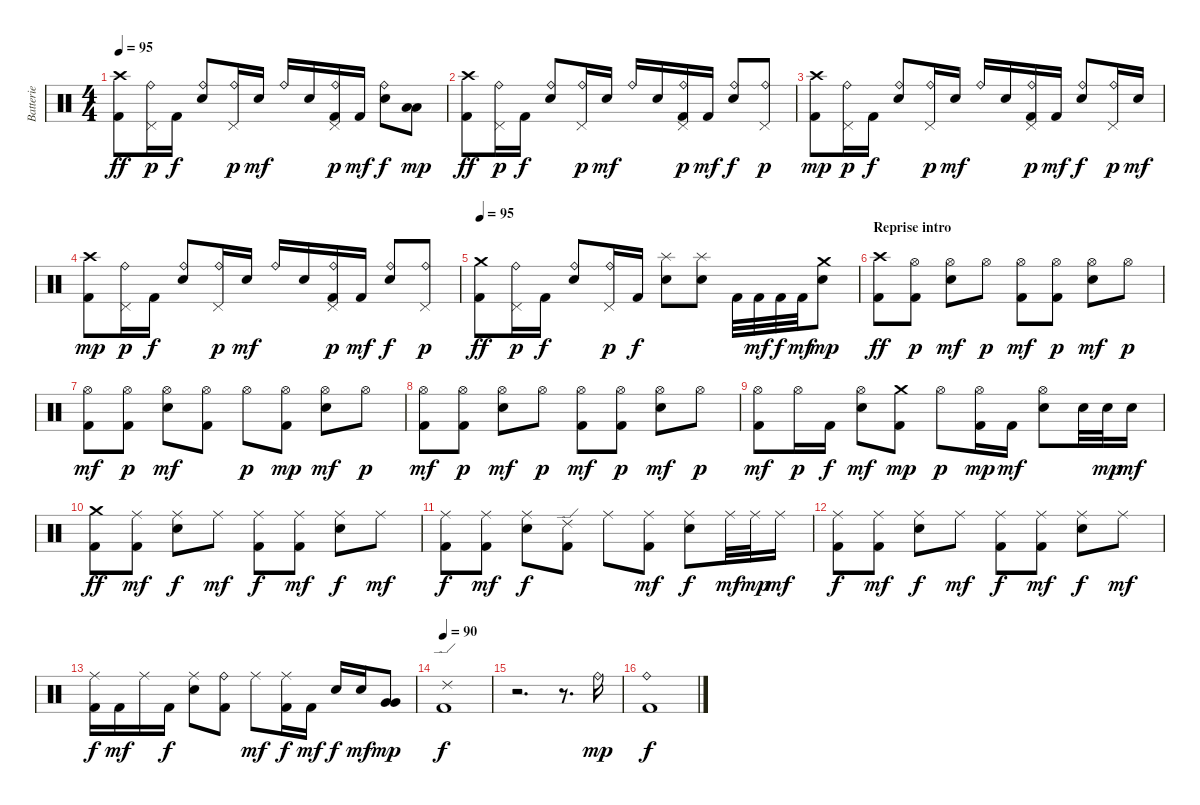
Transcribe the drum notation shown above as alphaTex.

\track ("Batterie" "Batterie") {instrument percussion}
\staff {score}
\articulation defaults
\ts (4 4)
\tempo 95
\clef neutral
\ks c
("Crash high (hit)" "Kick (hit) 2").8{dy ff} ("Ride (bell)" "Pedal Hi-Hat (hit)").16{dy p} "Kick (hit) 2".16{dy f} ("Ride (bell)" "Electric Snare (hit)").8 ("Ride (bell)" "Pedal Hi-Hat (hit)").16{dy p} "Electric Snare (hit)".16{dy mf} "Ride (bell)".16 "Electric Snare (hit)".16 ("Ride (bell)" "Pedal Hi-Hat (hit)" "Kick (hit) 2").16{dy p} "Kick (hit) 2".16{dy mf} ("Ride (bell)" "Electric Snare (hit)").8{dy f} ("Low Tom (hit)" "Low Tom (hit)").8{bd 60 dy mp} |
("Crash high (hit)" "Kick (hit) 2").8{dy ff} ("Ride (bell)" "Pedal Hi-Hat (hit)").16{dy p} "Kick (hit) 2".16{dy f} ("Ride (bell)" "Electric Snare (hit)").8 ("Ride (bell)" "Pedal Hi-Hat (hit)").16{dy p} "Electric Snare (hit)".16{dy mf} "Ride (bell)".16 "Electric Snare (hit)".16 ("Ride (bell)" "Pedal Hi-Hat (hit)" "Kick (hit) 2").16{dy p} "Kick (hit) 2".16{dy mf} ("Ride (bell)" "Electric Snare (hit)").8{dy f} ("Ride (bell)" "Pedal Hi-Hat (hit)").8{dy p} |
("Crash high (hit)" "Kick (hit) 2").8{dy mp} ("Ride (bell)" "Pedal Hi-Hat (hit)").16{dy p} "Kick (hit) 2".16{dy f} ("Ride (bell)" "Electric Snare (hit)").8 ("Ride (bell)" "Pedal Hi-Hat (hit)").16{dy p} "Electric Snare (hit)".16{dy mf} "Ride (bell)".16 "Electric Snare (hit)".16 ("Ride (bell)" "Pedal Hi-Hat (hit)" "Kick (hit) 2").16{dy p} "Kick (hit) 2".16{dy mf} ("Ride (bell)" "Electric Snare (hit)").8{dy f} ("Ride (bell)" "Pedal Hi-Hat (hit)").16{dy p} "Electric Snare (hit)".16{dy mf} |
("Crash high (hit)" "Kick (hit) 2").8{dy mp} ("Ride (bell)" "Pedal Hi-Hat (hit)").16{dy p} "Kick (hit) 2".16{dy f} ("Ride (bell)" "Electric Snare (hit)").8 ("Ride (bell)" "Pedal Hi-Hat (hit)").16{dy p} "Electric Snare (hit)".16{dy mf} "Ride (bell)".16 "Electric Snare (hit)".16 ("Ride (bell)" "Pedal Hi-Hat (hit)" "Kick (hit) 2").16{dy p} "Kick (hit) 2".16{dy mf} ("Ride (bell)" "Electric Snare (hit)").8{dy f} ("Ride (bell)" "Pedal Hi-Hat (hit)").8{dy p} |
\tempo 95
("Crash medium (hit)" "Kick (hit) 2").8{dy ff} ("Ride (bell)" "Pedal Hi-Hat (hit)").16{dy p} "Kick (hit) 2".16{dy f} ("Ride (bell)" "Electric Snare (hit)").8 ("Ride (bell)" "Pedal Hi-Hat (hit)").16{dy p} "Kick (hit) 2".16{dy f} ("Splash (hit)" "Electric Snare (hit)").8 ("Splash (hit)" "Electric Snare (hit)").8 "Kick (hit) 2".32 "Kick (hit) 2".32{dy mf} "Kick (hit) 2".32{dy f} "Kick (hit) 2".32{dy mf} ("Crash medium (hit)" "Electric Snare (hit)").8{dy mp} |
\section ("" "Reprise intro")
("Crash high (hit)" "Kick (hit) 2").8{dy ff} ("Hi-Hat (open)" "Kick (hit) 2").8{dy p} ("Hi-Hat (open)" "Electric Snare (hit)").8{dy mf} "Hi-Hat (open)".8{dy p} ("Hi-Hat (open)" "Kick (hit) 2").8{dy mf} ("Hi-Hat (open)" "Kick (hit) 2").8{dy p} ("Hi-Hat (open)" "Electric Snare (hit)").8{dy mf} "Hi-Hat (open)".8{dy p} |
("Hi-Hat (open)" "Kick (hit) 2").8{dy mf} ("Hi-Hat (open)" "Kick (hit) 2").8{dy p} ("Hi-Hat (open)" "Electric Snare (hit)").8{dy mf} ("Hi-Hat (open)" "Kick (hit) 2").8 "Hi-Hat (open)".8{dy p} ("Hi-Hat (open)" "Kick (hit) 2").8{dy mp} ("Hi-Hat (open)" "Electric Snare (hit)").8{dy mf} "Hi-Hat (open)".8{dy p} |
("Hi-Hat (open)" "Kick (hit) 2").8{dy mf} ("Hi-Hat (open)" "Kick (hit) 2").8{dy p} ("Hi-Hat (open)" "Electric Snare (hit)").8{dy mf} "Hi-Hat (open)".8{dy p} ("Hi-Hat (open)" "Kick (hit) 2").8{dy mf} ("Hi-Hat (open)" "Kick (hit) 2").8{dy p} ("Hi-Hat (open)" "Electric Snare (hit)").8{dy mf} "Hi-Hat (open)".8{dy p} |
("Hi-Hat (open)" "Kick (hit) 2").8{dy mf} "Hi-Hat (open)".16{dy p} "Kick (hit) 2".16{dy f} ("Hi-Hat (open)" "Electric Snare (hit)").8{dy mf} ("Crash medium (hit)" "Kick (hit) 2").8{dy mp} "Hi-Hat (open)".8{dy p} ("Hi-Hat (open)" "Kick (hit) 2").16{dy mp} "Kick (hit) 2".16{dy mf} ("Hi-Hat (open)" "Electric Snare (hit)").8 "Electric Snare (hit)".32 "Electric Snare (hit)".32{dy mp} "Electric Snare (hit)".16{dy mf} |
("Crash medium (hit)" "Kick (hit) 2").8{dy ff} ("Ride (middle)" "Kick (hit) 2").8{dy mf} ("Ride (middle)" "Electric Snare (hit)").8{dy f} "Ride (middle)".8{dy mf} ("Ride (middle)" "Kick (hit) 2").8{dy f} ("Ride (middle)" "Kick (hit) 2").8{dy mf} ("Ride (middle)" "Electric Snare (hit)").8{dy f} "Ride (middle)".8{dy mf} |
("Ride (middle)" "Kick (hit) 2").8{dy f} ("Ride (middle)" "Kick (hit) 2").8{dy mf} ("Ride (middle)" "Electric Snare (hit)").8{dy f} ("Ride (edge) 2" "Kick (hit) 2").8 "Ride (middle)".8 ("Ride (middle)" "Kick (hit) 2").8{dy mf} ("Ride (middle)" "Electric Snare (hit)").8{dy f} "Ride (middle)".32{dy mf} "Ride (middle)".32{dy mp} "Ride (middle)".16{dy mf} |
("Ride (middle)" "Kick (hit) 2").8{dy f} ("Ride (middle)" "Kick (hit) 2").8{dy mf} ("Ride (middle)" "Electric Snare (hit)").8{dy f} "Ride (middle)".8{dy mf} ("Ride (middle)" "Kick (hit) 2").8{dy f} ("Ride (middle)" "Kick (hit) 2").8{dy mf} ("Ride (middle)" "Electric Snare (hit)").8{dy f} "Ride (middle)".8{dy mf} |
("Ride (middle)" "Kick (hit) 2").16{dy f} "Kick (hit) 2".16{dy mf} "Ride (middle)".16 "Kick (hit) 2".16{dy f} ("Ride (middle)" "Electric Snare (hit)").8 ("Ride (bell)" "Kick (hit) 2").8 "Ride (middle)".8{dy mf} ("Ride (middle)" "Kick (hit) 2").16{dy f} "Kick (hit) 2".16{dy mf} "Electric Snare (hit)".16{dy f} "Electric Snare (hit)".16{dy mf} ("Very Low Tom (hit)" "Very Low Tom (hit)").8{bd 60 dy mp} |
\tempo 90
("Ride (edge) 2" "Kick (hit) 2").1{dy f} |
r.2{d} r.8{d} "Ride (bell)".16{dy mp} |
("Ride (bell)" "Kick (hit) 2").1{dy f}
